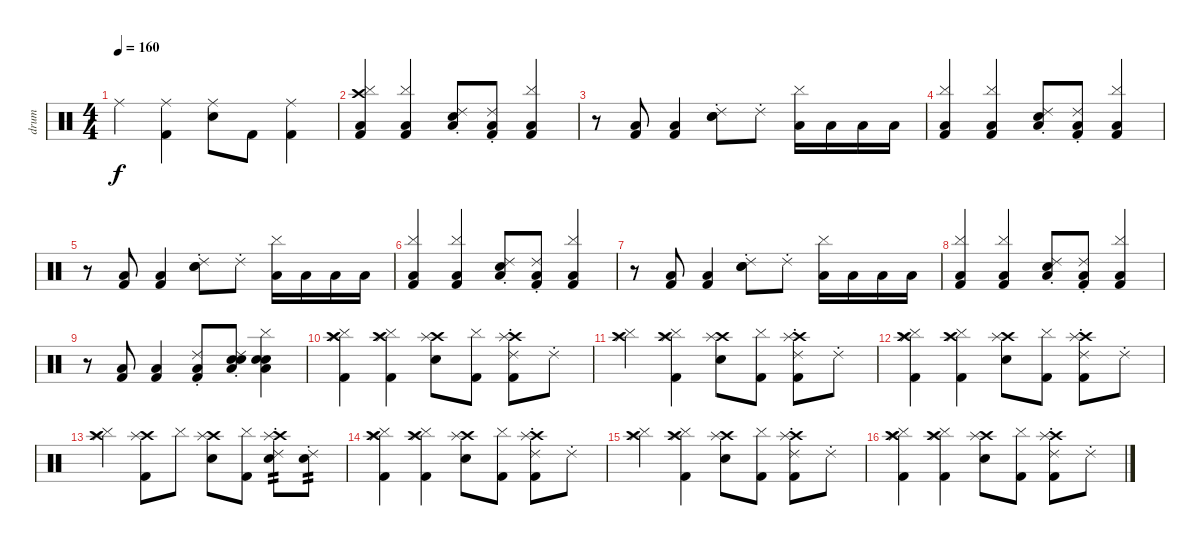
\track ("drum" "drum") {instrument percussion}
\staff {score}
\articulation defaults
\ts (4 4)
\tempo 160
\clef neutral
\ks c "Ride (middle)".4{dy f}
("Ride (middle)" "Kick (hit) 2").4 ("Ride (middle)" "Electric Snare (hit)").8 "Kick (hit) 2".8 ("Ride (middle)" "Kick (hit) 2").4 |
("Crash high (hit)" "Cymbal (hit)" "Low Floor Tom (hit)" "Kick (hit) 2").4 ("Cymbal (hit)" "Low Floor Tom (hit)" "Kick (hit) 2").4 ("Ride (choke) 2" "Low Floor Tom (hit)" "Electric Snare (hit)").8 ("Ride (choke) 2" "Low Floor Tom (hit)" "Kick (hit) 2").8 ("Cymbal (hit)" "Low Floor Tom (hit)" "Kick (hit) 2").4 |
r.8 ("Low Floor Tom (hit)" "Kick (hit) 2").8 ("Low Floor Tom (hit)" "Kick (hit) 2").4 ("Ride (choke) 2" "Electric Snare (hit)" "Snare (hit) 2").8 "Ride (choke) 2".8 ("Cymbal (hit)" "Low Floor Tom (hit)").16 "Low Floor Tom (hit)".16 "Low Floor Tom (hit)".16 "Low Floor Tom (hit)".16 |
("Cymbal (hit)" "Low Floor Tom (hit)" "Kick (hit) 2").4 ("Cymbal (hit)" "Low Floor Tom (hit)" "Kick (hit) 2").4 ("Ride (choke) 2" "Low Floor Tom (hit)" "Electric Snare (hit)").8 ("Ride (choke) 2" "Low Floor Tom (hit)" "Kick (hit) 2").8 ("Cymbal (hit)" "Low Floor Tom (hit)" "Kick (hit) 2").4 |
r.8 ("Low Floor Tom (hit)" "Kick (hit) 2").8 ("Low Floor Tom (hit)" "Kick (hit) 2").4 ("Ride (choke) 2" "Electric Snare (hit)" "Snare (hit) 2").8 "Ride (choke) 2".8 ("Cymbal (hit)" "Low Floor Tom (hit)").16 "Low Floor Tom (hit)".16 "Low Floor Tom (hit)".16 "Low Floor Tom (hit)".16 |
("Cymbal (hit)" "Low Floor Tom (hit)" "Kick (hit) 2").4 ("Cymbal (hit)" "Low Floor Tom (hit)" "Kick (hit) 2").4 ("Ride (choke) 2" "Low Floor Tom (hit)" "Electric Snare (hit)").8 ("Ride (choke) 2" "Low Floor Tom (hit)" "Kick (hit) 2").8 ("Cymbal (hit)" "Low Floor Tom (hit)" "Kick (hit) 2").4 |
r.8 ("Low Floor Tom (hit)" "Kick (hit) 2").8 ("Low Floor Tom (hit)" "Kick (hit) 2").4 ("Ride (choke) 2" "Electric Snare (hit)" "Snare (hit) 2").8 "Ride (choke) 2".8 ("Cymbal (hit)" "Low Floor Tom (hit)").16 "Low Floor Tom (hit)".16 "Low Floor Tom (hit)".16 "Low Floor Tom (hit)".16 |
("Cymbal (hit)" "Low Floor Tom (hit)" "Kick (hit) 2").4 ("Cymbal (hit)" "Low Floor Tom (hit)" "Kick (hit) 2").4 ("Ride (choke) 2" "Low Floor Tom (hit)" "Electric Snare (hit)").8 ("Ride (choke) 2" "Low Floor Tom (hit)" "Kick (hit) 2").8 ("Cymbal (hit)" "Low Floor Tom (hit)" "Kick (hit) 2").4 |
r.8 ("Low Floor Tom (hit)" "Kick (hit) 2").8 ("Low Floor Tom (hit)" "Kick (hit) 2").4 ("Ride (choke) 2" "Low Floor Tom (hit)" "Kick (hit) 2").8 ("Ride (choke) 2" "Low Floor Tom (hit)" "Electric Snare (hit)" "Snare (hit) 2").8 ("Cymbal (hit)" "Low Floor Tom (hit)" "Electric Snare (hit)" "Snare (hit) 2").4 |
("Crash high (hit)" "Splash (hit)" "Cymbal (hit)" "Splash (hit)" "Kick (hit) 2").4 ("Crash high (hit)" "Splash (hit)" "Cymbal (hit)" "Kick (hit) 2").4 ("Crash high (hit)" "Splash (hit)" "Electric Snare (hit)").8 ("Cymbal (hit)" "Kick (hit) 2").8 ("Crash high (hit)" "Splash (hit)" "Ride (choke) 2" "Kick (hit) 2").8 "Ride (choke) 2".8 |
("Crash high (hit)" "Splash (hit)" "Cymbal (hit)").4 ("Crash high (hit)" "Splash (hit)" "Cymbal (hit)" "Kick (hit) 2").4 ("Crash high (hit)" "Splash (hit)" "Electric Snare (hit)").8 ("Cymbal (hit)" "Kick (hit) 2").8 ("Crash high (hit)" "Splash (hit)" "Ride (choke) 2" "Kick (hit) 2").8 "Ride (choke) 2".8 |
("Crash high (hit)" "Splash (hit)" "Cymbal (hit)" "Splash (hit)" "Kick (hit) 2").4 ("Crash high (hit)" "Splash (hit)" "Cymbal (hit)" "Kick (hit) 2").4 ("Crash high (hit)" "Splash (hit)" "Electric Snare (hit)").8 ("Cymbal (hit)" "Kick (hit) 2").8 ("Crash high (hit)" "Splash (hit)" "Ride (choke) 2" "Kick (hit) 2").8 "Ride (choke) 2".8 |
("Crash high (hit)" "Splash (hit)" "Cymbal (hit)").4 ("Crash high (hit)" "Splash (hit)" "Kick (hit) 2").8 "Cymbal (hit)".8 ("Crash high (hit)" "Splash (hit)" "Electric Snare (hit)").8 ("Cymbal (hit)" "Kick (hit) 2").8 ("Crash high (hit)" "Splash (hit)" "Ride (choke) 2" "Electric Snare (hit)").8{tp 2} ("Ride (choke) 2" "Electric Snare (hit)").8{tp 2} |
("Crash high (hit)" "Splash (hit)" "Cymbal (hit)" "Splash (hit)" "Kick (hit) 2").4 ("Crash high (hit)" "Splash (hit)" "Cymbal (hit)" "Kick (hit) 2").4 ("Crash high (hit)" "Splash (hit)" "Electric Snare (hit)").8 ("Cymbal (hit)" "Kick (hit) 2").8 ("Crash high (hit)" "Splash (hit)" "Ride (choke) 2" "Kick (hit) 2").8 "Ride (choke) 2".8 |
("Crash high (hit)" "Splash (hit)" "Cymbal (hit)").4 ("Crash high (hit)" "Splash (hit)" "Cymbal (hit)" "Kick (hit) 2").4 ("Crash high (hit)" "Splash (hit)" "Electric Snare (hit)").8 ("Cymbal (hit)" "Kick (hit) 2").8 ("Crash high (hit)" "Splash (hit)" "Ride (choke) 2" "Kick (hit) 2").8 "Ride (choke) 2".8 |
("Crash high (hit)" "Splash (hit)" "Cymbal (hit)" "Splash (hit)" "Kick (hit) 2").4 ("Crash high (hit)" "Splash (hit)" "Cymbal (hit)" "Kick (hit) 2").4 ("Crash high (hit)" "Splash (hit)" "Electric Snare (hit)").8 ("Cymbal (hit)" "Kick (hit) 2").8 ("Crash high (hit)" "Splash (hit)" "Ride (choke) 2" "Kick (hit) 2").8 "Ride (choke) 2".8
